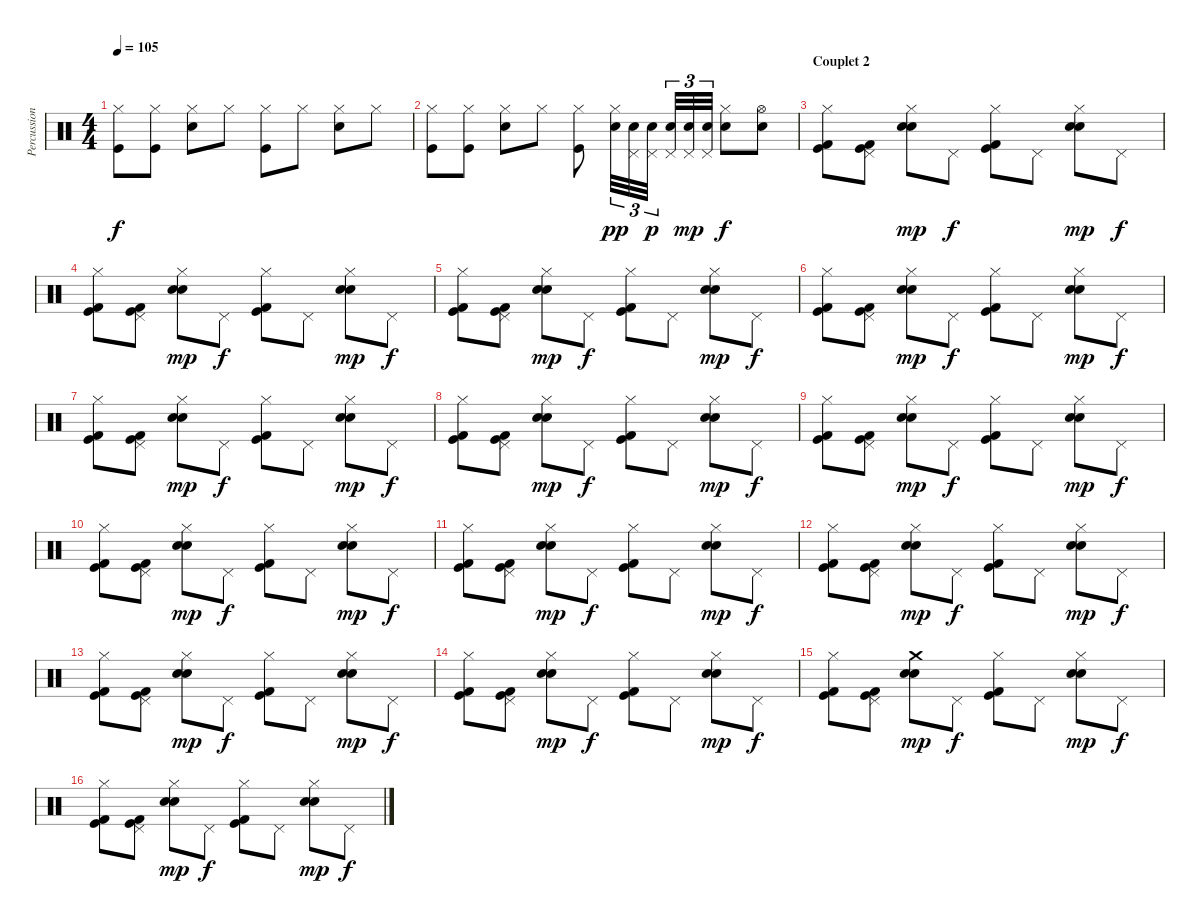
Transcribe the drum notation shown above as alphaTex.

\track ("Percussions" "Percussion") {instrument percussion}
\staff {score}
\articulation defaults
\ts (4 4)
\tempo 105
\clef neutral
\ks c
("Hi-Hat (closed)" "Kick (hit)").8{dy f} ("Hi-Hat (closed)" "Kick (hit)").8 ("Hi-Hat (closed)" "Electric Snare (hit)").8 "Hi-Hat (closed)".8 ("Hi-Hat (closed)" "Kick (hit)").8 "Hi-Hat (closed)".8 ("Hi-Hat (closed)" "Electric Snare (hit)").8 "Hi-Hat (closed)".8 |
("Hi-Hat (closed)" "Kick (hit)").8 ("Hi-Hat (closed)" "Kick (hit)").8 ("Hi-Hat (closed)" "Electric Snare (hit)").8 "Hi-Hat (closed)".8 ("Hi-Hat (closed)" "Kick (hit)").8 ("Hi-Hat (closed)" "Electric Snare (hit)").32{tu (3 2) dy pp} ("Pedal Hi-Hat (hit)" "Electric Snare (hit)").32{tu (3 2)} ("Pedal Hi-Hat (hit)" "Electric Snare (hit)").32{tu (3 2) dy p} ("Pedal Hi-Hat (hit)" "Electric Snare (hit)").32{tu (3 2)} ("Pedal Hi-Hat (hit)" "Electric Snare (hit)").32{tu (3 2) dy mp} ("Pedal Hi-Hat (hit)" "Electric Snare (hit)").32{tu (3 2)} ("Hi-Hat (closed)" "Electric Snare (hit)").8{dy f} ("Hi-Hat (open)" "Electric Snare (hit)").8 |
\section ("" "Couplet 2")
("Hi-Hat (closed)" "Kick (hit) 2" "Kick (hit)").8 ("Pedal Hi-Hat (hit)" "Kick (hit) 2" "Kick (hit)").8 ("Hi-Hat (closed)" "Electric Snare (hit)" "Snare (hit) 2").8{dy mp} "Pedal Hi-Hat (hit)".8{dy f} ("Hi-Hat (closed)" "Kick (hit) 2" "Kick (hit)").8 "Pedal Hi-Hat (hit)".8 ("Hi-Hat (closed)" "Electric Snare (hit)" "Snare (hit) 2").8{dy mp} "Pedal Hi-Hat (hit)".8{dy f} |
("Hi-Hat (closed)" "Kick (hit) 2" "Kick (hit)").8 ("Pedal Hi-Hat (hit)" "Kick (hit) 2" "Kick (hit)").8 ("Hi-Hat (closed)" "Electric Snare (hit)" "Snare (hit) 2").8{dy mp} "Pedal Hi-Hat (hit)".8{dy f} ("Hi-Hat (closed)" "Kick (hit) 2" "Kick (hit)").8 "Pedal Hi-Hat (hit)".8 ("Hi-Hat (closed)" "Electric Snare (hit)" "Snare (hit) 2").8{dy mp} "Pedal Hi-Hat (hit)".8{dy f} |
("Hi-Hat (closed)" "Kick (hit) 2" "Kick (hit)").8 ("Pedal Hi-Hat (hit)" "Kick (hit) 2" "Kick (hit)").8 ("Hi-Hat (closed)" "Electric Snare (hit)" "Snare (hit) 2").8{dy mp} "Pedal Hi-Hat (hit)".8{dy f} ("Hi-Hat (closed)" "Kick (hit) 2" "Kick (hit)").8 "Pedal Hi-Hat (hit)".8 ("Hi-Hat (closed)" "Electric Snare (hit)" "Snare (hit) 2").8{dy mp} "Pedal Hi-Hat (hit)".8{dy f} |
("Hi-Hat (closed)" "Kick (hit) 2" "Kick (hit)").8 ("Pedal Hi-Hat (hit)" "Kick (hit) 2" "Kick (hit)").8 ("Hi-Hat (closed)" "Electric Snare (hit)" "Snare (hit) 2").8{dy mp} "Pedal Hi-Hat (hit)".8{dy f} ("Hi-Hat (closed)" "Kick (hit) 2" "Kick (hit)").8 "Pedal Hi-Hat (hit)".8 ("Hi-Hat (closed)" "Electric Snare (hit)" "Snare (hit) 2").8{dy mp} "Pedal Hi-Hat (hit)".8{dy f} |
("Hi-Hat (closed)" "Kick (hit) 2" "Kick (hit)").8 ("Pedal Hi-Hat (hit)" "Kick (hit) 2" "Kick (hit)").8 ("Hi-Hat (closed)" "Electric Snare (hit)" "Snare (hit) 2").8{dy mp} "Pedal Hi-Hat (hit)".8{dy f} ("Hi-Hat (closed)" "Kick (hit) 2" "Kick (hit)").8 "Pedal Hi-Hat (hit)".8 ("Hi-Hat (closed)" "Electric Snare (hit)" "Snare (hit) 2").8{dy mp} "Pedal Hi-Hat (hit)".8{dy f} |
("Hi-Hat (closed)" "Kick (hit) 2" "Kick (hit)").8 ("Pedal Hi-Hat (hit)" "Kick (hit) 2" "Kick (hit)").8 ("Hi-Hat (closed)" "Electric Snare (hit)" "Snare (hit) 2").8{dy mp} "Pedal Hi-Hat (hit)".8{dy f} ("Hi-Hat (closed)" "Kick (hit) 2" "Kick (hit)").8 "Pedal Hi-Hat (hit)".8 ("Hi-Hat (closed)" "Electric Snare (hit)" "Snare (hit) 2").8{dy mp} "Pedal Hi-Hat (hit)".8{dy f} |
("Hi-Hat (closed)" "Kick (hit) 2" "Kick (hit)").8 ("Pedal Hi-Hat (hit)" "Kick (hit) 2" "Kick (hit)").8 ("Hi-Hat (closed)" "Electric Snare (hit)" "Snare (hit) 2").8{dy mp} "Pedal Hi-Hat (hit)".8{dy f} ("Hi-Hat (closed)" "Kick (hit) 2" "Kick (hit)").8 "Pedal Hi-Hat (hit)".8 ("Hi-Hat (closed)" "Electric Snare (hit)" "Snare (hit) 2").8{dy mp} "Pedal Hi-Hat (hit)".8{dy f} |
("Hi-Hat (closed)" "Kick (hit) 2" "Kick (hit)").8 ("Pedal Hi-Hat (hit)" "Kick (hit) 2" "Kick (hit)").8 ("Hi-Hat (closed)" "Electric Snare (hit)" "Snare (hit) 2").8{dy mp} "Pedal Hi-Hat (hit)".8{dy f} ("Hi-Hat (closed)" "Kick (hit) 2" "Kick (hit)").8 "Pedal Hi-Hat (hit)".8 ("Hi-Hat (closed)" "Electric Snare (hit)" "Snare (hit) 2").8{dy mp} "Pedal Hi-Hat (hit)".8{dy f} |
("Hi-Hat (closed)" "Kick (hit) 2" "Kick (hit)").8 ("Pedal Hi-Hat (hit)" "Kick (hit) 2" "Kick (hit)").8 ("Hi-Hat (closed)" "Electric Snare (hit)" "Snare (hit) 2").8{dy mp} "Pedal Hi-Hat (hit)".8{dy f} ("Hi-Hat (closed)" "Kick (hit) 2" "Kick (hit)").8 "Pedal Hi-Hat (hit)".8 ("Hi-Hat (closed)" "Electric Snare (hit)" "Snare (hit) 2").8{dy mp} "Pedal Hi-Hat (hit)".8{dy f} |
("Hi-Hat (closed)" "Kick (hit) 2" "Kick (hit)").8 ("Pedal Hi-Hat (hit)" "Kick (hit) 2" "Kick (hit)").8 ("Hi-Hat (closed)" "Electric Snare (hit)" "Snare (hit) 2").8{dy mp} "Pedal Hi-Hat (hit)".8{dy f} ("Hi-Hat (closed)" "Kick (hit) 2" "Kick (hit)").8 "Pedal Hi-Hat (hit)".8 ("Hi-Hat (closed)" "Electric Snare (hit)" "Snare (hit) 2").8{dy mp} "Pedal Hi-Hat (hit)".8{dy f} |
("Hi-Hat (closed)" "Kick (hit) 2" "Kick (hit)").8 ("Pedal Hi-Hat (hit)" "Kick (hit) 2" "Kick (hit)").8 ("Hi-Hat (closed)" "Electric Snare (hit)" "Snare (hit) 2").8{dy mp} "Pedal Hi-Hat (hit)".8{dy f} ("Hi-Hat (closed)" "Kick (hit) 2" "Kick (hit)").8 "Pedal Hi-Hat (hit)".8 ("Hi-Hat (closed)" "Electric Snare (hit)" "Snare (hit) 2").8{dy mp} "Pedal Hi-Hat (hit)".8{dy f} |
("Hi-Hat (closed)" "Kick (hit) 2" "Kick (hit)").8 ("Pedal Hi-Hat (hit)" "Kick (hit) 2" "Kick (hit)").8 ("Hi-Hat (closed)" "Electric Snare (hit)" "Snare (hit) 2").8{dy mp} "Pedal Hi-Hat (hit)".8{dy f} ("Hi-Hat (closed)" "Kick (hit) 2" "Kick (hit)").8 "Pedal Hi-Hat (hit)".8 ("Hi-Hat (closed)" "Electric Snare (hit)" "Snare (hit) 2").8{dy mp} "Pedal Hi-Hat (hit)".8{dy f} |
("Hi-Hat (closed)" "Kick (hit) 2" "Kick (hit)").8 ("Pedal Hi-Hat (hit)" "Kick (hit) 2" "Kick (hit)").8 ("Crash medium (hit)" "Electric Snare (hit)" "Snare (hit) 2").8{dy mp} "Pedal Hi-Hat (hit)".8{dy f} ("Hi-Hat (closed)" "Kick (hit) 2" "Kick (hit)").8 "Pedal Hi-Hat (hit)".8 ("Hi-Hat (closed)" "Electric Snare (hit)" "Snare (hit) 2").8{dy mp} "Pedal Hi-Hat (hit)".8{dy f} |
("Hi-Hat (closed)" "Kick (hit) 2" "Kick (hit)").8 ("Pedal Hi-Hat (hit)" "Kick (hit) 2" "Kick (hit)").8 ("Hi-Hat (closed)" "Electric Snare (hit)" "Snare (hit) 2").8{dy mp} "Pedal Hi-Hat (hit)".8{dy f} ("Hi-Hat (closed)" "Kick (hit) 2" "Kick (hit)").8 "Pedal Hi-Hat (hit)".8 ("Hi-Hat (closed)" "Electric Snare (hit)" "Snare (hit) 2").8{dy mp} "Pedal Hi-Hat (hit)".8{dy f}
